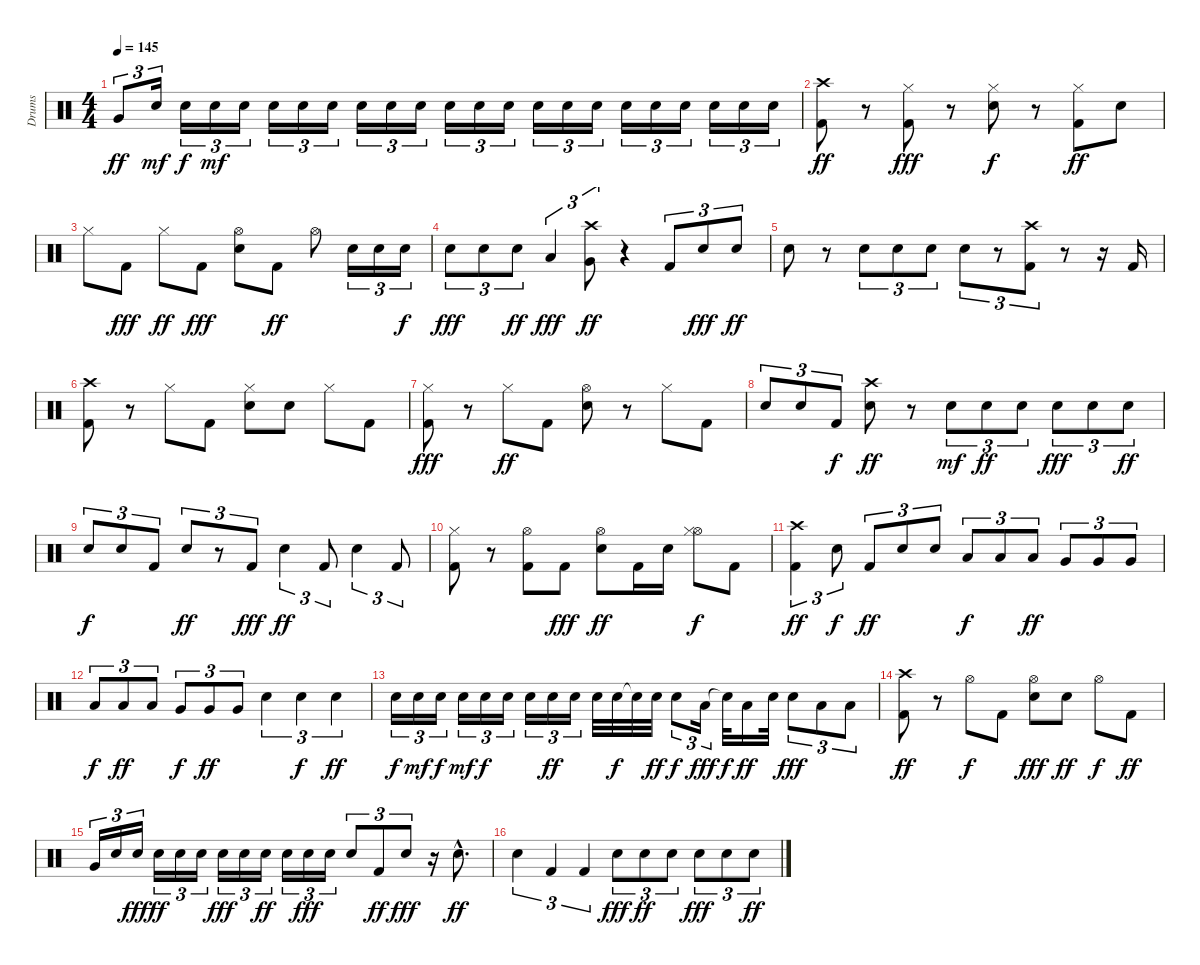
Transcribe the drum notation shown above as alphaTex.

\track ("Drums" "Drums") {instrument percussion}
\staff {score}
\articulation defaults
\ts (4 4)
\tempo 145
\clef neutral
\ks c "Very Low Tom (hit)".8{tu (3 2) dy ff} "Snare (hit) 2".16{tu (3 2) dy mf} "Snare (hit) 2".16{tu (3 2) dy f} "Snare (hit) 2".16{tu (3 2) dy mf} "Snare (hit) 2".16{tu (3 2)} "Snare (hit) 2".16{tu (3 2)} "Snare (hit) 2".16{tu (3 2)} "Snare (hit) 2".16{tu (3 2)} "Snare (hit) 2".16{tu (3 2)} "Snare (hit) 2".16{tu (3 2)} "Snare (hit) 2".16{tu (3 2)} "Snare (hit) 2".16{tu (3 2)} "Snare (hit) 2".16{tu (3 2)} "Snare (hit) 2".16{tu (3 2)} "Snare (hit) 2".16{tu (3 2)} "Snare (hit) 2".16{tu (3 2)} "Snare (hit) 2".16{tu (3 2)} "Snare (hit) 2".16{tu (3 2)} "Snare (hit) 2".16{tu (3 2)} "Snare (hit) 2".16{tu (3 2)} "Snare (hit) 2".16{tu (3 2)} "Snare (hit) 2".16{tu (3 2)} "Snare (hit) 2".16{tu (3 2)}
|
("Crash high (hit)" "Kick (hit) 2").8{dy ff} r.8 ("Hi-Hat (closed)" "Kick (hit) 2").8{dy fff} r.8 ("Hi-Hat (closed)" "Snare (hit) 2").8{dy f} r.8 ("Hi-Hat (closed)" "Kick (hit) 2").8{dy ff} "Snare (hit) 2".8 |
"Hi-Hat (closed)".8 "Kick (hit) 2".8{dy fff} "Hi-Hat (closed)".8{dy ff} "Kick (hit) 2".8{dy fff} ("Hi-Hat (open)" "Snare (hit) 2").8 "Kick (hit) 2".8{dy ff} "Hi-Hat (open)".8 "Snare (hit) 2".16{tu (3 2)} "Snare (hit) 2".16{tu (3 2)} "Snare (hit) 2".16{tu (3 2) dy f} |
"Snare (hit) 2".8{tu (3 2) dy fff} "Snare (hit) 2".8{tu (3 2)} "Snare (hit) 2".8{tu (3 2) dy ff} "Low Tom (hit)".4{tu (3 2) dy fff} ("Crash high (hit)" "Very Low Tom (hit)").8{tu (3 2) dy ff} r.4 "Kick (hit) 2".8{tu (3 2)} "Snare (hit) 2".8{tu (3 2) dy fff} "Snare (hit) 2".8{tu (3 2) dy ff} |
"Snare (hit) 2".8 r.8 "Snare (hit) 2".8{tu (3 2)} "Snare (hit) 2".8{tu (3 2)} "Snare (hit) 2".8{tu (3 2)} "Snare (hit) 2".8{tu (3 2)} r.8{tu (3 2)} ("Crash high (hit)" "Kick (hit) 2").8{tu (3 2)} r.8 r.16 "Kick (hit) 2".16 |
("Crash high (hit)" "Kick (hit) 2").8 r.8 "Hi-Hat (closed)".8 "Kick (hit) 2".8 ("Hi-Hat (closed)" "Snare (hit) 2").8 "Snare (hit) 2".8 "Hi-Hat (closed)".8 "Kick (hit) 2".8 |
("Hi-Hat (closed)" "Kick (hit) 2").8{dy fff} r.8 "Hi-Hat (closed)".8{dy ff} "Kick (hit) 2".8 ("Hi-Hat (open)" "Snare (hit) 2").8 r.8 "Hi-Hat (closed)".8 "Kick (hit) 2".8 |
"Snare (hit) 2".8{tu (3 2)} "Snare (hit) 2".8{tu (3 2)} "Kick (hit) 2".8{tu (3 2) dy f} ("Crash high (hit)" "Snare (hit) 2").8{dy ff} r.8 "Snare (hit) 2".8{tu (3 2) dy mf} "Snare (hit) 2".8{tu (3 2) dy ff} "Snare (hit) 2".8{tu (3 2)} "Snare (hit) 2".8{tu (3 2) dy fff} "Snare (hit) 2".8{tu (3 2)} "Snare (hit) 2".8{tu (3 2) dy ff} |
"Snare (hit) 2".8{tu (3 2) dy f} "Snare (hit) 2".8{tu (3 2)} "Kick (hit) 2".8{tu (3 2)} "Snare (hit) 2".8{tu (3 2) dy ff} r.8{tu (3 2)} "Kick (hit) 2".8{tu (3 2) dy fff} "Snare (hit) 2".4{tu (3 2) dy ff} "Kick (hit) 2".8{tu (3 2)} "Snare (hit) 2".4{tu (3 2)} "Kick (hit) 2".8{tu (3 2)} |
("Hi-Hat (closed)" "Kick (hit) 2").8 r.8 ("Hi-Hat (open)" "Kick (hit) 2").8 "Kick (hit) 2".8{dy fff} ("Hi-Hat (open)" "Snare (hit) 2").8{dy ff} "Kick (hit) 2".16 "Snare (hit) 2".16 ("Hi-Hat (open)" "Hi-Hat (closed)").8{dy f} "Kick (hit) 2".8 |
("Crash high (hit)" "Kick (hit) 2").4{tu (3 2) dy ff} "Snare (hit) 2".8{tu (3 2) dy f} "Kick (hit) 2".8{tu (3 2) dy ff} "Snare (hit) 2".8{tu (3 2)} "Snare (hit) 2".8{tu (3 2)} "Low Tom (hit)".8{tu (3 2) dy f} "Low Tom (hit)".8{tu (3 2)} "Low Tom (hit)".8{tu (3 2) dy ff} "Very Low Tom (hit)".8{tu (3 2)} "Very Low Tom (hit)".8{tu (3 2)} "Very Low Tom (hit)".8{tu (3 2)} |
"Low Tom (hit)".8{tu (3 2) dy f} "Low Tom (hit)".8{tu (3 2) dy ff} "Low Tom (hit)".8{tu (3 2)} "Very Low Tom (hit)".8{tu (3 2) dy f} "Very Low Tom (hit)".8{tu (3 2) dy ff} "Very Low Tom (hit)".8{tu (3 2)} "Snare (hit) 2".4{tu (3 2)} "Snare (hit) 2".4{tu (3 2) dy f} "Snare (hit) 2".4{tu (3 2) dy ff} |
"Snare (hit) 2".16{tu (3 2) dy f} "Snare (hit) 2".16{tu (3 2) dy mf} "Snare (hit) 2".16{tu (3 2) dy f} "Snare (hit) 2".16{tu (3 2) dy mf} "Snare (hit) 2".16{tu (3 2) dy f} "Snare (hit) 2".16{tu (3 2)} "Snare (hit) 2".16{tu (3 2)} "Snare (hit) 2".16{tu (3 2) dy ff} "Snare (hit) 2".16{tu (3 2)} "Snare (hit) 2".32 "Snare (hit) 2".32{dy f} "Snare (hit)"{t}.32 "Snare (hit) 2".32{dy ff} "Snare (hit) 2".8{tu (3 2) dy f} "Low Tom (hit)".16{tu (3 2) dy fff} "Snare (hit)"{t}.32{dy f} "Low Floor Tom (hit)".16{dy ff} "Snare (hit) 2".32 "Snare (hit) 2".8{tu (3 2) dy fff} "Low Tom (hit)".8{tu (3 2)} "Low Floor Tom (hit)".8{tu (3 2)} |
("Crash high (hit)" "Kick (hit) 2").8{dy ff} r.8 "Hi-Hat (open)".8{dy f} "Kick (hit) 2".8 ("Hi-Hat (open)" "Snare (hit) 2").8{dy fff} "Snare (hit) 2".8{dy ff} "Hi-Hat (open)".8{dy f} "Kick (hit) 2".8{dy ff} |
"Very Low Tom (hit)".16{tu (3 2)} "Snare (hit) 2".16{tu (3 2)} "Snare (hit) 2".16{tu (3 2) dy fff} "Snare (hit) 2".16{tu (3 2) dy ff} "Snare (hit) 2".16{tu (3 2)} "Snare (hit) 2".16{tu (3 2)} "Snare (hit) 2".16{tu (3 2) dy fff} "Snare (hit) 2".16{tu (3 2)} "Snare (hit) 2".16{tu (3 2) dy ff} "Snare (hit) 2".16{tu (3 2)} "Snare (hit) 2".16{tu (3 2) dy fff} "Snare (hit) 2".16{tu (3 2)} "Snare (hit) 2".8{tu (3 2)} "Kick (hit) 2".8{tu (3 2) dy ff} "Snare (hit) 2".8{tu (3 2) dy fff} r.16 "Snare (hit) 2"{hac}.8{d dy ff} |
"Snare (hit) 2".4{tu (3 2)} "Kick (hit) 2".4{tu (3 2)} "Kick (hit) 2".4{tu (3 2)} "Snare (hit) 2".8{tu (3 2) dy fff} "Snare (hit) 2".8{tu (3 2) dy ff} "Snare (hit) 2".8{tu (3 2)} "Snare (hit) 2".8{tu (3 2) dy fff} "Snare (hit) 2".8{tu (3 2)} "Snare (hit) 2".8{tu (3 2) dy ff}
